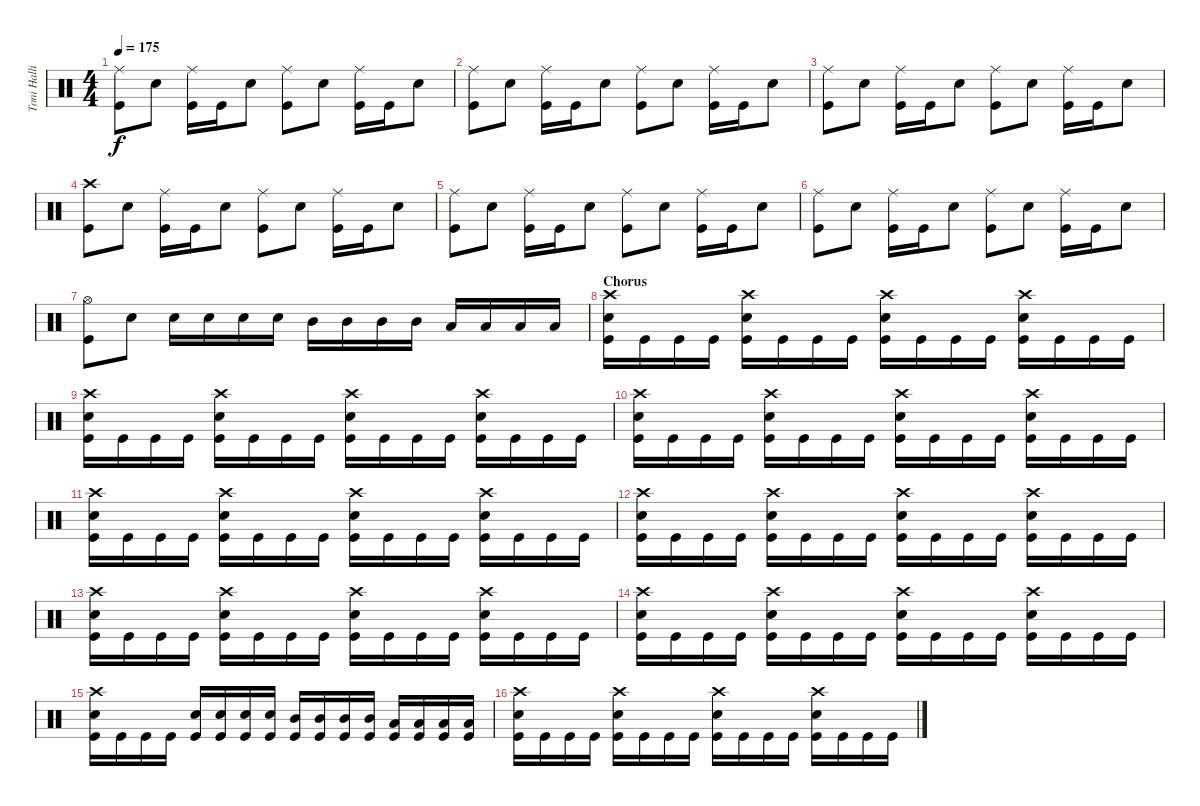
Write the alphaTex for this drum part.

\track ("Toni Hallio" "Toni Halli") {instrument percussion}
\staff {score}
\articulation defaults
\ts (4 4)
\tempo 175
\clef neutral
\ks c
("Ride (middle)" "Kick (hit)").8{dy f} "Snare (hit) 2".8 ("Ride (middle)" "Kick (hit)").16 "Kick (hit)".16 "Snare (hit) 2".8 ("Ride (middle)" "Kick (hit)").8 "Snare (hit) 2".8 ("Ride (middle)" "Kick (hit)").16 "Kick (hit)".16 "Snare (hit) 2".8 |
("Ride (middle)" "Kick (hit)").8 "Snare (hit) 2".8 ("Ride (middle)" "Kick (hit)").16 "Kick (hit)".16 "Snare (hit) 2".8 ("Ride (middle)" "Kick (hit)").8 "Snare (hit) 2".8 ("Ride (middle)" "Kick (hit)").16 "Kick (hit)".16 "Snare (hit) 2".8 |
("Ride (middle)" "Kick (hit)").8 "Snare (hit) 2".8 ("Ride (middle)" "Kick (hit)").16 "Kick (hit)".16 "Snare (hit) 2".8 ("Ride (middle)" "Kick (hit)").8 "Snare (hit) 2".8 ("Ride (middle)" "Kick (hit)").16 "Kick (hit)".16 "Snare (hit) 2".8 |
("Crash high (hit)" "Kick (hit)").8 "Snare (hit) 2".8 ("Ride (middle)" "Kick (hit)").16 "Kick (hit)".16 "Snare (hit) 2".8 ("Ride (middle)" "Kick (hit)").8 "Snare (hit) 2".8 ("Ride (middle)" "Kick (hit)").16 "Kick (hit)".16 "Snare (hit) 2".8 |
("Ride (middle)" "Kick (hit)").8 "Snare (hit) 2".8 ("Ride (middle)" "Kick (hit)").16 "Kick (hit)".16 "Snare (hit) 2".8 ("Ride (middle)" "Kick (hit)").8 "Snare (hit) 2".8 ("Ride (middle)" "Kick (hit)").16 "Kick (hit)".16 "Snare (hit) 2".8 |
("Ride (middle)" "Kick (hit)").8 "Snare (hit) 2".8 ("Ride (middle)" "Kick (hit)").16 "Kick (hit)".16 "Snare (hit) 2".8 ("Ride (middle)" "Kick (hit)").8 "Snare (hit) 2".8 ("Ride (middle)" "Kick (hit)").16 "Kick (hit)".16 "Snare (hit) 2".8 |
("Hi-Hat (open)" "Kick (hit)").8 "Snare (hit) 2".8 "Snare (hit) 2".16 "Snare (hit) 2".16 "Snare (hit) 2".16 "Snare (hit) 2".16 "Mid Tom (hit)".16 "Mid Tom (hit)".16 "Mid Tom (hit)".16 "Mid Tom (hit)".16 "Low Tom (hit)".16 "Low Tom (hit)".16 "Low Tom (hit)".16 "Low Tom (hit)".16 |
\section ("" "Chorus")
("Crash high (hit)" "Snare (hit) 2" "Kick (hit)").16 "Kick (hit)".16 "Kick (hit)".16 "Kick (hit)".16 ("Crash high (hit)" "Snare (hit) 2" "Kick (hit)").16 "Kick (hit)".16 "Kick (hit)".16 "Kick (hit)".16 ("Crash high (hit)" "Snare (hit) 2" "Kick (hit)").16 "Kick (hit)".16 "Kick (hit)".16 "Kick (hit)".16 ("Crash high (hit)" "Snare (hit) 2" "Kick (hit)").16 "Kick (hit)".16 "Kick (hit)".16 "Kick (hit)".16 |
("Crash high (hit)" "Snare (hit) 2" "Kick (hit)").16 "Kick (hit)".16 "Kick (hit)".16 "Kick (hit)".16 ("Crash high (hit)" "Snare (hit) 2" "Kick (hit)").16 "Kick (hit)".16 "Kick (hit)".16 "Kick (hit)".16 ("Crash high (hit)" "Snare (hit) 2" "Kick (hit)").16 "Kick (hit)".16 "Kick (hit)".16 "Kick (hit)".16 ("Crash high (hit)" "Snare (hit) 2" "Kick (hit)").16 "Kick (hit)".16 "Kick (hit)".16 "Kick (hit)".16 |
("Crash high (hit)" "Snare (hit) 2" "Kick (hit)").16 "Kick (hit)".16 "Kick (hit)".16 "Kick (hit)".16 ("Crash high (hit)" "Snare (hit) 2" "Kick (hit)").16 "Kick (hit)".16 "Kick (hit)".16 "Kick (hit)".16 ("Crash high (hit)" "Snare (hit) 2" "Kick (hit)").16 "Kick (hit)".16 "Kick (hit)".16 "Kick (hit)".16 ("Crash high (hit)" "Snare (hit) 2" "Kick (hit)").16 "Kick (hit)".16 "Kick (hit)".16 "Kick (hit)".16 |
("Crash high (hit)" "Snare (hit) 2" "Kick (hit)").16 "Kick (hit)".16 "Kick (hit)".16 "Kick (hit)".16 ("Crash high (hit)" "Snare (hit) 2" "Kick (hit)").16 "Kick (hit)".16 "Kick (hit)".16 "Kick (hit)".16 ("Crash high (hit)" "Snare (hit) 2" "Kick (hit)").16 "Kick (hit)".16 "Kick (hit)".16 "Kick (hit)".16 ("Crash high (hit)" "Snare (hit) 2" "Kick (hit)").16 "Kick (hit)".16 "Kick (hit)".16 "Kick (hit)".16 |
("Crash high (hit)" "Snare (hit) 2" "Kick (hit)").16 "Kick (hit)".16 "Kick (hit)".16 "Kick (hit)".16 ("Crash high (hit)" "Snare (hit) 2" "Kick (hit)").16 "Kick (hit)".16 "Kick (hit)".16 "Kick (hit)".16 ("Crash high (hit)" "Snare (hit) 2" "Kick (hit)").16 "Kick (hit)".16 "Kick (hit)".16 "Kick (hit)".16 ("Crash high (hit)" "Snare (hit) 2" "Kick (hit)").16 "Kick (hit)".16 "Kick (hit)".16 "Kick (hit)".16 |
("Crash high (hit)" "Snare (hit) 2" "Kick (hit)").16 "Kick (hit)".16 "Kick (hit)".16 "Kick (hit)".16 ("Crash high (hit)" "Snare (hit) 2" "Kick (hit)").16 "Kick (hit)".16 "Kick (hit)".16 "Kick (hit)".16 ("Crash high (hit)" "Snare (hit) 2" "Kick (hit)").16 "Kick (hit)".16 "Kick (hit)".16 "Kick (hit)".16 ("Crash high (hit)" "Snare (hit) 2" "Kick (hit)").16 "Kick (hit)".16 "Kick (hit)".16 "Kick (hit)".16 |
("Crash high (hit)" "Snare (hit) 2" "Kick (hit)").16 "Kick (hit)".16 "Kick (hit)".16 "Kick (hit)".16 ("Crash high (hit)" "Snare (hit) 2" "Kick (hit)").16 "Kick (hit)".16 "Kick (hit)".16 "Kick (hit)".16 ("Crash high (hit)" "Snare (hit) 2" "Kick (hit)").16 "Kick (hit)".16 "Kick (hit)".16 "Kick (hit)".16 ("Crash high (hit)" "Snare (hit) 2" "Kick (hit)").16 "Kick (hit)".16 "Kick (hit)".16 "Kick (hit)".16 |
("Crash high (hit)" "Snare (hit) 2" "Kick (hit)").16 "Kick (hit)".16 "Kick (hit)".16 "Kick (hit)".16 ("Snare (hit) 2" "Kick (hit)").16 ("Snare (hit) 2" "Kick (hit)").16 ("Snare (hit) 2" "Kick (hit)").16 ("Snare (hit) 2" "Kick (hit)").16 ("Mid Tom (hit)" "Kick (hit)").16 ("Mid Tom (hit)" "Kick (hit)").16 ("Mid Tom (hit)" "Kick (hit)").16 ("Mid Tom (hit)" "Kick (hit)").16 ("Low Tom (hit)" "Kick (hit)").16 ("Low Tom (hit)" "Kick (hit)").16 ("Low Tom (hit)" "Kick (hit)").16 ("Low Tom (hit)" "Kick (hit)").16 |
("Crash high (hit)" "Snare (hit) 2" "Kick (hit)").16 "Kick (hit)".16 "Kick (hit)".16 "Kick (hit)".16 ("Crash high (hit)" "Snare (hit) 2" "Kick (hit)").16 "Kick (hit)".16 "Kick (hit)".16 "Kick (hit)".16 ("Crash high (hit)" "Snare (hit) 2" "Kick (hit)").16 "Kick (hit)".16 "Kick (hit)".16 "Kick (hit)".16 ("Crash high (hit)" "Snare (hit) 2" "Kick (hit)").16 "Kick (hit)".16 "Kick (hit)".16 "Kick (hit)".16
